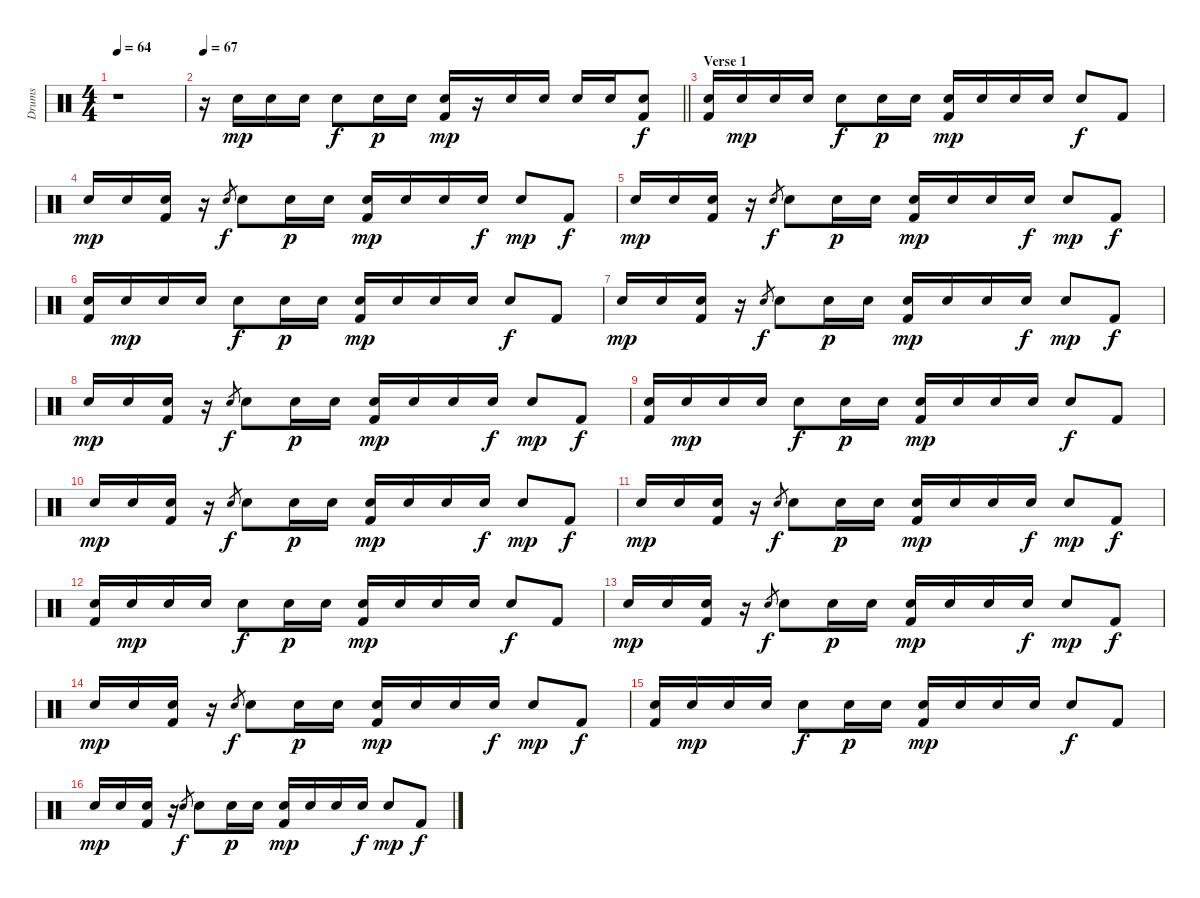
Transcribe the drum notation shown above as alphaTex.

\track ("Drums" "Drums") {instrument percussion}
\staff {score}
\articulation defaults
\ts (4 4)
\tempo 64
\clef neutral
\ks c
r.1{dy f} |
\tempo 67
\barLineRight lightlight
r.16 "Electric Snare (hit)".16{dy mp} "Electric Snare (hit)".16 "Electric Snare (hit)".16 "Electric Snare (hit)".8{dy f} "Electric Snare (hit)".16{dy p} "Electric Snare (hit)".16 ("Electric Snare (hit)" "Kick (hit) 2").16{dy mp} r.16 "Electric Snare (hit)".16 "Electric Snare (hit)".16 "Electric Snare (hit)".16 "Electric Snare (hit)".16 ("Electric Snare (hit)" "Kick (hit) 2").8{dy f} |
\section ("" "Verse 1")
("Electric Snare (hit)" "Kick (hit) 2").16 "Electric Snare (hit)".16{dy mp} "Electric Snare (hit)".16 "Electric Snare (hit)".16 "Electric Snare (hit)".8{dy f} "Electric Snare (hit)".16{dy p} "Electric Snare (hit)".16 ("Electric Snare (hit)" "Kick (hit) 2").16{dy mp} "Electric Snare (hit)".16 "Electric Snare (hit)".16 "Electric Snare (hit)".16 "Electric Snare (hit)".8{dy f} "Kick (hit) 2".8 |
"Electric Snare (hit)".16{dy mp} "Electric Snare (hit)".16 ("Electric Snare (hit)" "Kick (hit) 2").16 r.16 "Electric Snare (hit)".8{gr dy f} "Electric Snare (hit)".8 "Electric Snare (hit)".16{dy p} "Electric Snare (hit)".16 ("Electric Snare (hit)" "Kick (hit) 2").16{dy mp} "Electric Snare (hit)".16 "Electric Snare (hit)".16 "Electric Snare (hit)".16{dy f} "Electric Snare (hit)".8{dy mp} "Kick (hit) 2".8{dy f} |
"Electric Snare (hit)".16{dy mp} "Electric Snare (hit)".16 ("Electric Snare (hit)" "Kick (hit) 2").16 r.16 "Electric Snare (hit)".8{gr dy f} "Electric Snare (hit)".8 "Electric Snare (hit)".16{dy p} "Electric Snare (hit)".16 ("Electric Snare (hit)" "Kick (hit) 2").16{dy mp} "Electric Snare (hit)".16 "Electric Snare (hit)".16 "Electric Snare (hit)".16{dy f} "Electric Snare (hit)".8{dy mp} "Kick (hit) 2".8{dy f} |
("Electric Snare (hit)" "Kick (hit) 2").16 "Electric Snare (hit)".16{dy mp} "Electric Snare (hit)".16 "Electric Snare (hit)".16 "Electric Snare (hit)".8{dy f} "Electric Snare (hit)".16{dy p} "Electric Snare (hit)".16 ("Electric Snare (hit)" "Kick (hit) 2").16{dy mp} "Electric Snare (hit)".16 "Electric Snare (hit)".16 "Electric Snare (hit)".16 "Electric Snare (hit)".8{dy f} "Kick (hit) 2".8 |
"Electric Snare (hit)".16{dy mp} "Electric Snare (hit)".16 ("Electric Snare (hit)" "Kick (hit) 2").16 r.16 "Electric Snare (hit)".8{gr dy f} "Electric Snare (hit)".8 "Electric Snare (hit)".16{dy p} "Electric Snare (hit)".16 ("Electric Snare (hit)" "Kick (hit) 2").16{dy mp} "Electric Snare (hit)".16 "Electric Snare (hit)".16 "Electric Snare (hit)".16{dy f} "Electric Snare (hit)".8{dy mp} "Kick (hit) 2".8{dy f} |
"Electric Snare (hit)".16{dy mp} "Electric Snare (hit)".16 ("Electric Snare (hit)" "Kick (hit) 2").16 r.16 "Electric Snare (hit)".8{gr dy f} "Electric Snare (hit)".8 "Electric Snare (hit)".16{dy p} "Electric Snare (hit)".16 ("Electric Snare (hit)" "Kick (hit) 2").16{dy mp} "Electric Snare (hit)".16 "Electric Snare (hit)".16 "Electric Snare (hit)".16{dy f} "Electric Snare (hit)".8{dy mp} "Kick (hit) 2".8{dy f} |
("Electric Snare (hit)" "Kick (hit) 2").16 "Electric Snare (hit)".16{dy mp} "Electric Snare (hit)".16 "Electric Snare (hit)".16 "Electric Snare (hit)".8{dy f} "Electric Snare (hit)".16{dy p} "Electric Snare (hit)".16 ("Electric Snare (hit)" "Kick (hit) 2").16{dy mp} "Electric Snare (hit)".16 "Electric Snare (hit)".16 "Electric Snare (hit)".16 "Electric Snare (hit)".8{dy f} "Kick (hit) 2".8 |
"Electric Snare (hit)".16{dy mp} "Electric Snare (hit)".16 ("Electric Snare (hit)" "Kick (hit) 2").16 r.16 "Electric Snare (hit)".8{gr dy f} "Electric Snare (hit)".8 "Electric Snare (hit)".16{dy p} "Electric Snare (hit)".16 ("Electric Snare (hit)" "Kick (hit) 2").16{dy mp} "Electric Snare (hit)".16 "Electric Snare (hit)".16 "Electric Snare (hit)".16{dy f} "Electric Snare (hit)".8{dy mp} "Kick (hit) 2".8{dy f} |
"Electric Snare (hit)".16{dy mp} "Electric Snare (hit)".16 ("Electric Snare (hit)" "Kick (hit) 2").16 r.16 "Electric Snare (hit)".8{gr dy f} "Electric Snare (hit)".8 "Electric Snare (hit)".16{dy p} "Electric Snare (hit)".16 ("Electric Snare (hit)" "Kick (hit) 2").16{dy mp} "Electric Snare (hit)".16 "Electric Snare (hit)".16 "Electric Snare (hit)".16{dy f} "Electric Snare (hit)".8{dy mp} "Kick (hit) 2".8{dy f} |
("Electric Snare (hit)" "Kick (hit) 2").16 "Electric Snare (hit)".16{dy mp} "Electric Snare (hit)".16 "Electric Snare (hit)".16 "Electric Snare (hit)".8{dy f} "Electric Snare (hit)".16{dy p} "Electric Snare (hit)".16 ("Electric Snare (hit)" "Kick (hit) 2").16{dy mp} "Electric Snare (hit)".16 "Electric Snare (hit)".16 "Electric Snare (hit)".16 "Electric Snare (hit)".8{dy f} "Kick (hit) 2".8 |
"Electric Snare (hit)".16{dy mp} "Electric Snare (hit)".16 ("Electric Snare (hit)" "Kick (hit) 2").16 r.16 "Electric Snare (hit)".8{gr dy f} "Electric Snare (hit)".8 "Electric Snare (hit)".16{dy p} "Electric Snare (hit)".16 ("Electric Snare (hit)" "Kick (hit) 2").16{dy mp} "Electric Snare (hit)".16 "Electric Snare (hit)".16 "Electric Snare (hit)".16{dy f} "Electric Snare (hit)".8{dy mp} "Kick (hit) 2".8{dy f} |
"Electric Snare (hit)".16{dy mp} "Electric Snare (hit)".16 ("Electric Snare (hit)" "Kick (hit) 2").16 r.16 "Electric Snare (hit)".8{gr dy f} "Electric Snare (hit)".8 "Electric Snare (hit)".16{dy p} "Electric Snare (hit)".16 ("Electric Snare (hit)" "Kick (hit) 2").16{dy mp} "Electric Snare (hit)".16 "Electric Snare (hit)".16 "Electric Snare (hit)".16{dy f} "Electric Snare (hit)".8{dy mp} "Kick (hit) 2".8{dy f} |
("Electric Snare (hit)" "Kick (hit) 2").16 "Electric Snare (hit)".16{dy mp} "Electric Snare (hit)".16 "Electric Snare (hit)".16 "Electric Snare (hit)".8{dy f} "Electric Snare (hit)".16{dy p} "Electric Snare (hit)".16 ("Electric Snare (hit)" "Kick (hit) 2").16{dy mp} "Electric Snare (hit)".16 "Electric Snare (hit)".16 "Electric Snare (hit)".16 "Electric Snare (hit)".8{dy f} "Kick (hit) 2".8 |
"Electric Snare (hit)".16{dy mp} "Electric Snare (hit)".16 ("Electric Snare (hit)" "Kick (hit) 2").16 r.16 "Electric Snare (hit)".8{gr dy f} "Electric Snare (hit)".8 "Electric Snare (hit)".16{dy p} "Electric Snare (hit)".16 ("Electric Snare (hit)" "Kick (hit) 2").16{dy mp} "Electric Snare (hit)".16 "Electric Snare (hit)".16 "Electric Snare (hit)".16{dy f} "Electric Snare (hit)".8{dy mp} "Kick (hit) 2".8{dy f}
